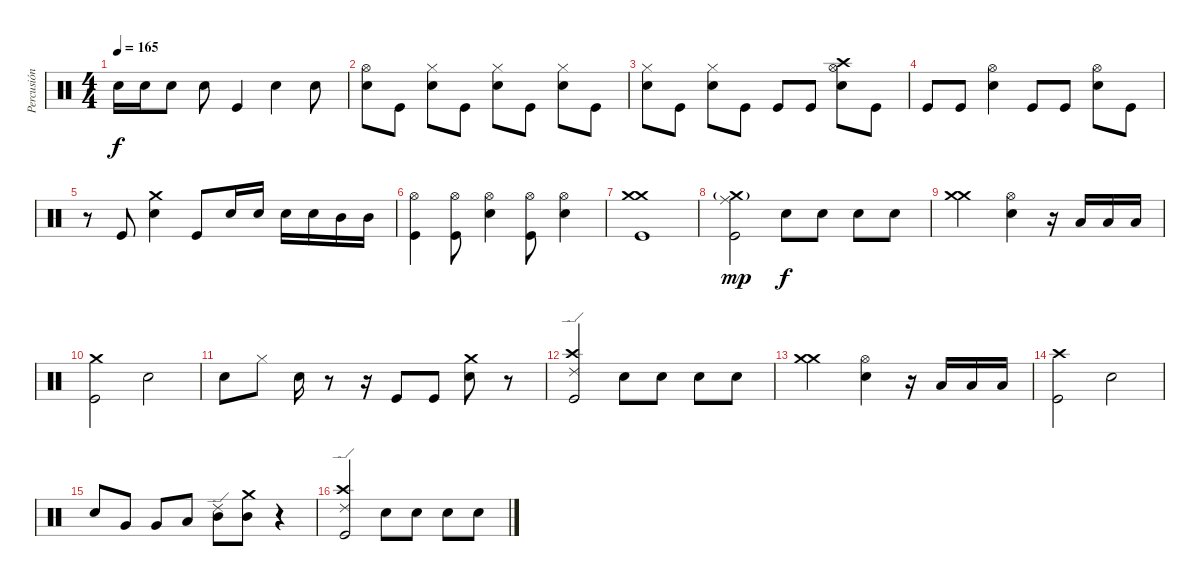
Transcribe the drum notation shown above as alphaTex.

\track ("Percusión" "Percusión") {instrument percussion}
\staff {score}
\articulation defaults
\ts (4 4)
\tempo 165
\clef neutral
\ks c "Electric Snare (hit)".16{dy f} "Electric Snare (hit)".16 "Electric Snare (hit)".8 "Electric Snare (hit)".8 "Kick (hit)".4 "Electric Snare (hit)".4 "Electric Snare (hit)".8
|
("Electric Snare (hit)" "Hi-Hat (open)").8 "Kick (hit)".8 ("Hi-Hat (closed)" "Electric Snare (hit)").8 "Kick (hit)".8 ("Hi-Hat (closed)" "Electric Snare (hit)").8 "Kick (hit)".8 ("Hi-Hat (closed)" "Electric Snare (hit)").8 "Kick (hit)".8 |
("Hi-Hat (closed)" "Electric Snare (hit)").8 "Kick (hit)".8 ("Hi-Hat (closed)" "Electric Snare (hit)").8 "Kick (hit)".8 "Kick (hit)".8 "Kick (hit)".8 ("Crash high (hit)" "Hi-Hat (open)" "Electric Snare (hit)").8 "Kick (hit)".8 |
"Kick (hit)".8 "Kick (hit)".8 ("Hi-Hat (open)" "Electric Snare (hit)").4 "Kick (hit)".8 "Kick (hit)".8 ("Electric Snare (hit)" "Hi-Hat (open)").8 "Kick (hit)".8 |
r.8 "Kick (hit)".8 ("Crash medium (hit)" "Electric Snare (hit)").4 "Kick (hit)".8 "Electric Snare (hit)".16 "Electric Snare (hit)".16 "Electric Snare (hit)".16 "Electric Snare (hit)".16 "Mid Tom (hit)".16 "Mid Tom (hit)".16 |
("Kick (hit)" "Hi-Hat (open)").4 ("Kick (hit)" "Hi-Hat (open)").8 ("Electric Snare (hit)" "Hi-Hat (open)").4 ("Kick (hit)" "Hi-Hat (open)").8 ("Electric Snare (hit)" "Hi-Hat (open)").4 |
("Kick (hit)" "Crash medium (hit)" "Crash medium (hit)").1 |
("Ride (middle)" "Crash medium (hit)"{g} "Kick (hit)").2{dy mp volume 16} "Electric Snare (hit)".8{dy f} "Electric Snare (hit)".8 "Electric Snare (hit)".8 "Electric Snare (hit)".8 |
("Crash medium (hit)" "Crash medium (hit)").2 ("Hi-Hat (open)" "Electric Snare (hit)").4 r.16 "Low Floor Tom (hit)".16 "Low Floor Tom (hit)".16 "Low Floor Tom (hit)".16 |
("Crash medium (hit)" "Kick (hit)").2 "Electric Snare (hit)".2 |
"Electric Snare (hit)".8 "Hi-Hat (closed)".8 "Electric Snare (hit)".16 r.8 r.16 "Kick (hit)".8 "Kick (hit)".8 ("Crash medium (hit)" "Electric Snare (hit)").8 r.8 |
("Ride (edge) 2" "Crash high (hit)" "Kick (hit)").2 "Electric Snare (hit)".8 "Electric Snare (hit)".8 "Electric Snare (hit)".8 "Electric Snare (hit)".8 |
("Crash medium (hit)" "Crash medium (hit)").2 ("Hi-Hat (open)" "Electric Snare (hit)").4 r.16 "Low Floor Tom (hit)".16 "Low Floor Tom (hit)".16 "Low Floor Tom (hit)".16 |
("Crash high (hit)" "Kick (hit)").2 "Electric Snare (hit)".2 |
"Electric Snare (hit)".8 "Very Low Tom (hit)".8 "Very Low Tom (hit)".8 "Low Tom (hit)".8 ("Ride (edge) 2" "Mid Tom (hit)").8 ("Crash medium (hit)" "Mid Tom (hit)").8 r.4 |
("Ride (edge) 2" "Crash high (hit)" "Kick (hit)").2 "Electric Snare (hit)".8 "Electric Snare (hit)".8 "Electric Snare (hit)".8 "Electric Snare (hit)".8
